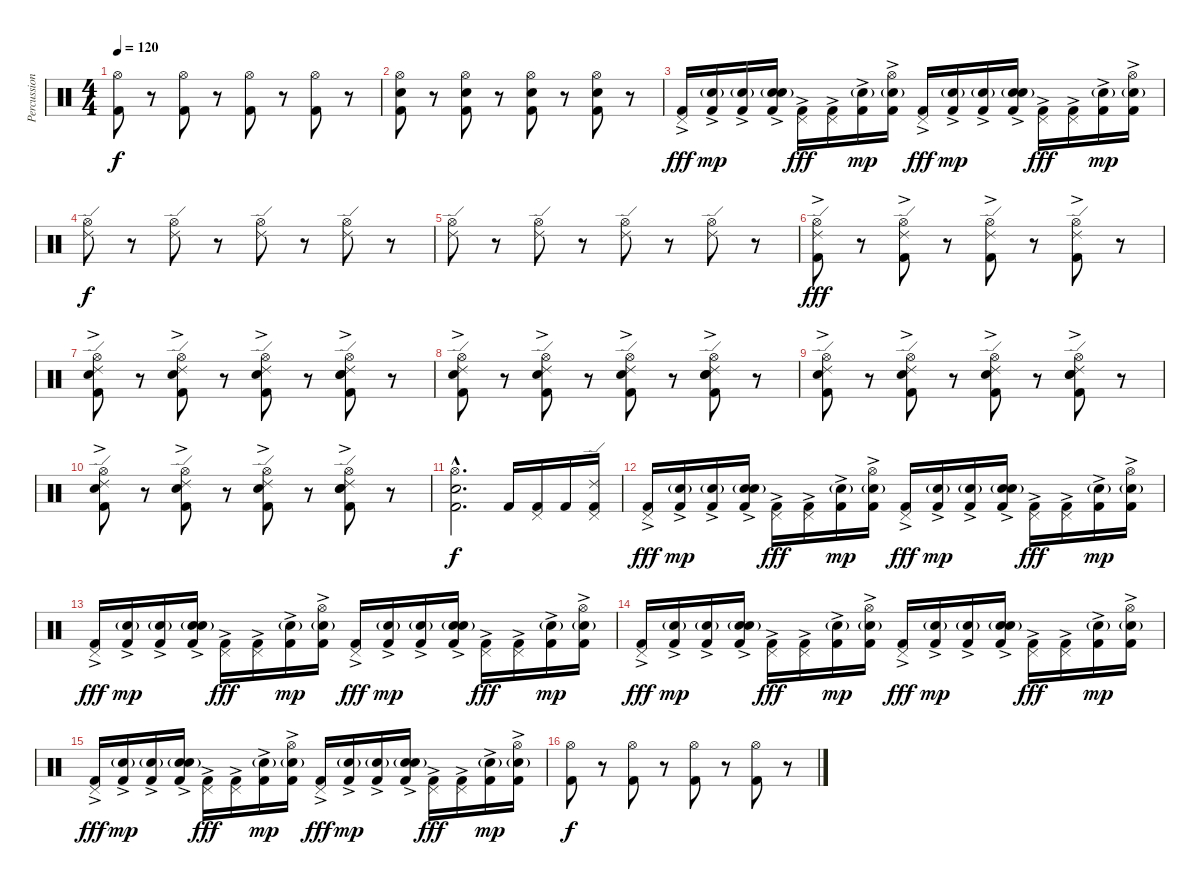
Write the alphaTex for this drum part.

\track ("Percussions" "Percussion") {instrument percussion}
\staff {score}
\articulation defaults
\ts (4 4)
\tempo 120
\clef neutral
\ks c
("Hi-Hat (open)" "Kick (hit) 2").8{dy f} r.8 ("Hi-Hat (open)" "Kick (hit) 2").8 r.8 ("Hi-Hat (open)" "Kick (hit) 2").8 r.8 ("Hi-Hat (open)" "Kick (hit) 2").8 r.8 |
("Hi-Hat (open)" "Kick (hit) 2" "Electric Snare (hit)").8 r.8 ("Hi-Hat (open)" "Kick (hit) 2" "Electric Snare (hit)").8 r.8 ("Hi-Hat (open)" "Kick (hit) 2" "Electric Snare (hit)").8 r.8 ("Hi-Hat (open)" "Kick (hit) 2" "Electric Snare (hit)").8 r.8 |
("Kick (hit) 2"{ac} "Pedal Hi-Hat (hit)").16{dy fff} ("Kick (hit) 2"{ac} "Electric Snare (hit)"{g}).16{dy mp} ("Kick (hit) 2"{ac} "Electric Snare (hit)"{g}).16 ("Kick (hit) 2"{ac} "Electric Snare (hit)"{g} "Snare (hit) 2"{g}).16 ("Kick (hit) 2"{ac} "Pedal Hi-Hat (hit)").16{dy fff} ("Kick (hit) 2"{ac} "Pedal Hi-Hat (hit)").16 ("Kick (hit) 2"{ac} "Electric Snare (hit)"{g}).16{dy mp} ("Kick (hit) 2"{ac} "Electric Snare (hit)"{g} "Hi-Hat (open)").16 ("Kick (hit) 2"{ac} "Pedal Hi-Hat (hit)").16{dy fff} ("Kick (hit) 2"{ac} "Electric Snare (hit)"{g}).16{dy mp} ("Kick (hit) 2"{ac} "Electric Snare (hit)"{g}).16 ("Kick (hit) 2"{ac} "Electric Snare (hit)"{g} "Snare (hit) 2"{g}).16 ("Kick (hit) 2"{ac} "Pedal Hi-Hat (hit)").16{dy fff} ("Kick (hit) 2"{ac} "Pedal Hi-Hat (hit)").16 ("Kick (hit) 2"{ac} "Electric Snare (hit)"{g}).16{dy mp} ("Kick (hit) 2"{ac} "Electric Snare (hit)"{g} "Hi-Hat (open)").16 |
("Ride (edge) 2" "Hi-Hat (open)").8{dy f} r.8 ("Ride (edge) 2" "Hi-Hat (open)").8 r.8 ("Ride (edge) 2" "Hi-Hat (open)").8 r.8 ("Ride (edge) 2" "Hi-Hat (open)").8 r.8 |
("Ride (edge) 2" "Hi-Hat (open)").8 r.8 ("Ride (edge) 2" "Hi-Hat (open)").8 r.8 ("Ride (edge) 2" "Hi-Hat (open)").8 r.8 ("Ride (edge) 2" "Hi-Hat (open)").8 r.8 |
("Ride (edge) 2" "Hi-Hat (open)" "Kick (hit) 2"{ac}).8{dy fff} r.8 ("Ride (edge) 2" "Hi-Hat (open)" "Kick (hit) 2"{ac}).8 r.8 ("Ride (edge) 2" "Hi-Hat (open)" "Kick (hit) 2"{ac}).8 r.8 ("Ride (edge) 2" "Hi-Hat (open)" "Kick (hit) 2"{ac}).8 r.8 |
("Ride (edge) 2" "Hi-Hat (open)" "Kick (hit) 2"{ac} "Electric Snare (hit)").8 r.8 ("Ride (edge) 2" "Hi-Hat (open)" "Kick (hit) 2"{ac} "Electric Snare (hit)").8 r.8 ("Ride (edge) 2" "Hi-Hat (open)" "Kick (hit) 2"{ac} "Electric Snare (hit)").8 r.8 ("Ride (edge) 2" "Hi-Hat (open)" "Kick (hit) 2"{ac} "Electric Snare (hit)" "Snare (hit) 2").8 r.8 |
("Ride (edge) 2" "Hi-Hat (open)" "Kick (hit) 2"{ac} "Electric Snare (hit)").8 r.8 ("Ride (edge) 2" "Hi-Hat (open)" "Kick (hit) 2"{ac} "Electric Snare (hit)").8 r.8 ("Ride (edge) 2" "Hi-Hat (open)" "Kick (hit) 2"{ac} "Electric Snare (hit)").8 r.8 ("Ride (edge) 2" "Hi-Hat (open)" "Kick (hit) 2"{ac} "Electric Snare (hit)" "Snare (hit) 2").8 r.8 |
("Ride (edge) 2" "Hi-Hat (open)" "Kick (hit) 2"{ac} "Electric Snare (hit)").8 r.8 ("Ride (edge) 2" "Hi-Hat (open)" "Kick (hit) 2"{ac} "Electric Snare (hit)").8 r.8 ("Ride (edge) 2" "Hi-Hat (open)" "Kick (hit) 2"{ac} "Electric Snare (hit)").8 r.8 ("Ride (edge) 2" "Hi-Hat (open)" "Kick (hit) 2"{ac} "Electric Snare (hit)" "Snare (hit) 2").8 r.8 |
("Ride (edge) 2" "Hi-Hat (open)" "Kick (hit) 2"{ac} "Electric Snare (hit)").8 r.8 ("Ride (edge) 2" "Hi-Hat (open)" "Kick (hit) 2"{ac} "Electric Snare (hit)").8 r.8 ("Ride (edge) 2" "Hi-Hat (open)" "Kick (hit) 2"{ac} "Electric Snare (hit)").8 r.8 ("Ride (edge) 2" "Hi-Hat (open)" "Kick (hit) 2"{ac} "Electric Snare (hit)" "Snare (hit) 2").8 r.8 |
("Electric Snare (hit)"{hac} "Kick (hit) 2"{hac} "Hi-Hat (open)"{hac}).2{d dy f} "Kick (hit) 2".16 ("Kick (hit) 2" "Pedal Hi-Hat (hit)").16 "Kick (hit) 2".16 ("Kick (hit) 2" "Pedal Hi-Hat (hit)" "Ride (edge) 2").16 |
("Kick (hit) 2"{ac} "Pedal Hi-Hat (hit)").16{dy fff} ("Kick (hit) 2"{ac} "Electric Snare (hit)"{g}).16{dy mp} ("Kick (hit) 2"{ac} "Electric Snare (hit)"{g}).16 ("Kick (hit) 2"{ac} "Electric Snare (hit)"{g} "Snare (hit) 2"{g}).16 ("Kick (hit) 2"{ac} "Pedal Hi-Hat (hit)").16{dy fff} ("Kick (hit) 2"{ac} "Pedal Hi-Hat (hit)").16 ("Kick (hit) 2"{ac} "Electric Snare (hit)"{g}).16{dy mp} ("Kick (hit) 2"{ac} "Electric Snare (hit)"{g} "Hi-Hat (open)").16 ("Kick (hit) 2"{ac} "Pedal Hi-Hat (hit)").16{dy fff} ("Kick (hit) 2"{ac} "Electric Snare (hit)"{g}).16{dy mp} ("Kick (hit) 2"{ac} "Electric Snare (hit)"{g}).16 ("Kick (hit) 2"{ac} "Electric Snare (hit)"{g} "Snare (hit) 2"{g}).16 ("Kick (hit) 2"{ac} "Pedal Hi-Hat (hit)").16{dy fff} ("Kick (hit) 2"{ac} "Pedal Hi-Hat (hit)").16 ("Kick (hit) 2"{ac} "Electric Snare (hit)"{g}).16{dy mp} ("Kick (hit) 2"{ac} "Electric Snare (hit)"{g} "Hi-Hat (open)").16 |
("Kick (hit) 2"{ac} "Pedal Hi-Hat (hit)").16{dy fff} ("Kick (hit) 2"{ac} "Electric Snare (hit)"{g}).16{dy mp} ("Kick (hit) 2"{ac} "Electric Snare (hit)"{g}).16 ("Kick (hit) 2"{ac} "Electric Snare (hit)"{g} "Snare (hit) 2"{g}).16 ("Kick (hit) 2"{ac} "Pedal Hi-Hat (hit)").16{dy fff} ("Kick (hit) 2"{ac} "Pedal Hi-Hat (hit)").16 ("Kick (hit) 2"{ac} "Electric Snare (hit)"{g}).16{dy mp} ("Kick (hit) 2"{ac} "Electric Snare (hit)"{g} "Hi-Hat (open)").16 ("Kick (hit) 2"{ac} "Pedal Hi-Hat (hit)").16{dy fff} ("Kick (hit) 2"{ac} "Electric Snare (hit)"{g}).16{dy mp} ("Kick (hit) 2"{ac} "Electric Snare (hit)"{g}).16 ("Kick (hit) 2"{ac} "Electric Snare (hit)"{g} "Snare (hit) 2"{g}).16 ("Kick (hit) 2"{ac} "Pedal Hi-Hat (hit)").16{dy fff} ("Kick (hit) 2"{ac} "Pedal Hi-Hat (hit)").16 ("Kick (hit) 2"{ac} "Electric Snare (hit)"{g}).16{dy mp} ("Kick (hit) 2"{ac} "Electric Snare (hit)"{g} "Hi-Hat (open)").16 |
("Kick (hit) 2"{ac} "Pedal Hi-Hat (hit)").16{dy fff} ("Kick (hit) 2"{ac} "Electric Snare (hit)"{g}).16{dy mp} ("Kick (hit) 2"{ac} "Electric Snare (hit)"{g}).16 ("Kick (hit) 2"{ac} "Electric Snare (hit)"{g} "Snare (hit) 2"{g}).16 ("Kick (hit) 2"{ac} "Pedal Hi-Hat (hit)").16{dy fff} ("Kick (hit) 2"{ac} "Pedal Hi-Hat (hit)").16 ("Kick (hit) 2"{ac} "Electric Snare (hit)"{g}).16{dy mp} ("Kick (hit) 2"{ac} "Electric Snare (hit)"{g} "Hi-Hat (open)").16 ("Kick (hit) 2"{ac} "Pedal Hi-Hat (hit)").16{dy fff} ("Kick (hit) 2"{ac} "Electric Snare (hit)"{g}).16{dy mp} ("Kick (hit) 2"{ac} "Electric Snare (hit)"{g}).16 ("Kick (hit) 2"{ac} "Electric Snare (hit)"{g} "Snare (hit) 2"{g}).16 ("Kick (hit) 2"{ac} "Pedal Hi-Hat (hit)").16{dy fff} ("Kick (hit) 2"{ac} "Pedal Hi-Hat (hit)").16 ("Kick (hit) 2"{ac} "Electric Snare (hit)"{g}).16{dy mp} ("Kick (hit) 2"{ac} "Electric Snare (hit)"{g} "Hi-Hat (open)").16 |
("Kick (hit) 2"{ac} "Pedal Hi-Hat (hit)").16{dy fff} ("Kick (hit) 2"{ac} "Electric Snare (hit)"{g}).16{dy mp} ("Kick (hit) 2"{ac} "Electric Snare (hit)"{g}).16 ("Kick (hit) 2"{ac} "Electric Snare (hit)"{g} "Snare (hit) 2"{g}).16 ("Kick (hit) 2"{ac} "Pedal Hi-Hat (hit)").16{dy fff} ("Kick (hit) 2"{ac} "Pedal Hi-Hat (hit)").16 ("Kick (hit) 2"{ac} "Electric Snare (hit)"{g}).16{dy mp} ("Kick (hit) 2"{ac} "Electric Snare (hit)"{g} "Hi-Hat (open)").16 ("Kick (hit) 2"{ac} "Pedal Hi-Hat (hit)").16{dy fff} ("Kick (hit) 2"{ac} "Electric Snare (hit)"{g}).16{dy mp} ("Kick (hit) 2"{ac} "Electric Snare (hit)"{g}).16 ("Kick (hit) 2"{ac} "Electric Snare (hit)"{g} "Snare (hit) 2"{g}).16 ("Kick (hit) 2"{ac} "Pedal Hi-Hat (hit)").16{dy fff} ("Kick (hit) 2"{ac} "Pedal Hi-Hat (hit)").16 ("Kick (hit) 2"{ac} "Electric Snare (hit)"{g}).16{dy mp} ("Kick (hit) 2"{ac} "Electric Snare (hit)"{g} "Hi-Hat (open)").16 |
("Hi-Hat (open)" "Kick (hit) 2").8{dy f} r.8 ("Hi-Hat (open)" "Kick (hit) 2").8 r.8 ("Hi-Hat (open)" "Kick (hit) 2").8 r.8 ("Hi-Hat (open)" "Kick (hit) 2").8 r.8
